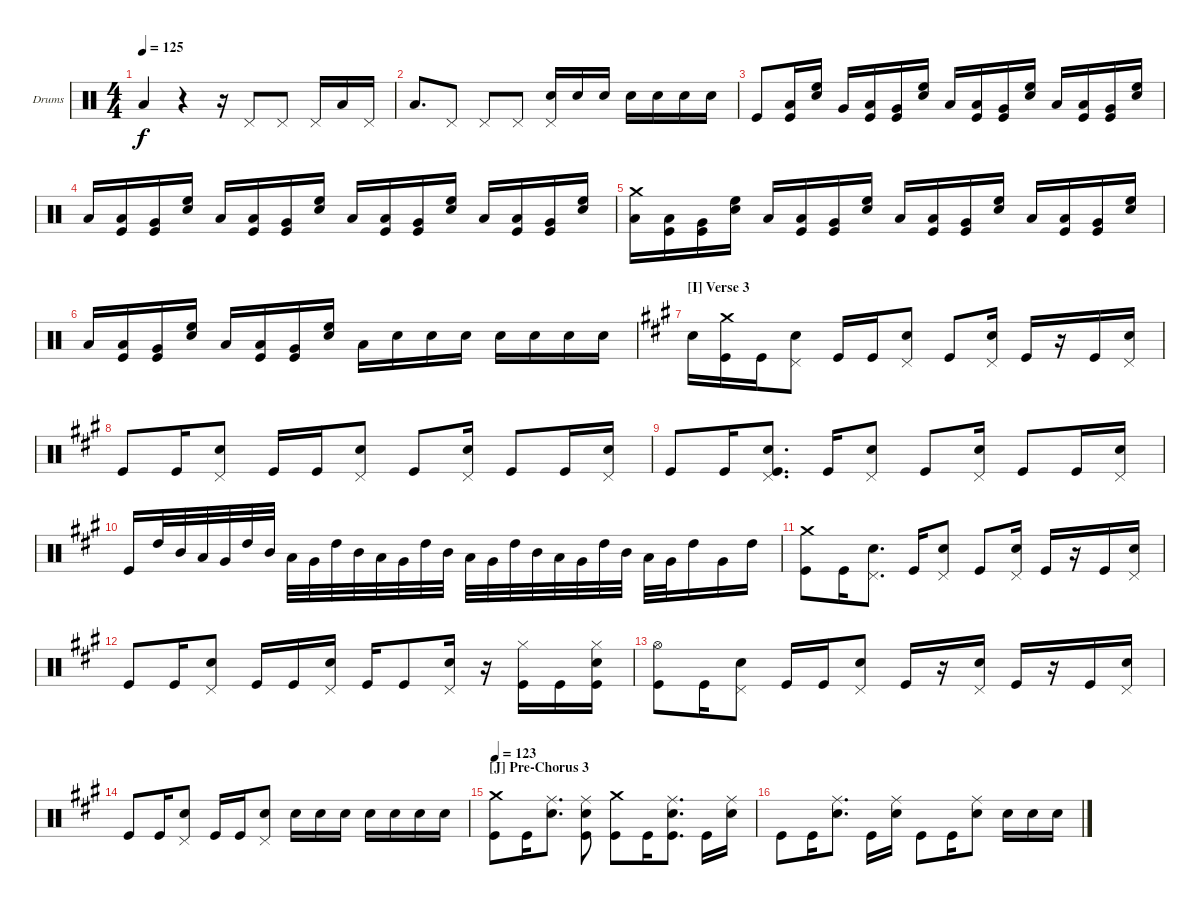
\bracketExtendMode groupsimilarinstruments
\firstSystemTrackNameOrientation horizontal
\otherSystemsTrackNameOrientation horizontal
\track ("Vinny Appice" "Drums") {instrument percussion}
\staff {score}
\articulation defaults
\ts (4 4)
\tempo 125
\clef neutral
\ks aminor "Low Tom (hit)".4{dy f}
r.4 r.16 "Pedal Hi-Hat (hit)".8 "Pedal Hi-Hat (hit)".8 "Pedal Hi-Hat (hit)".16 "Low Tom (hit)".16 "Pedal Hi-Hat (hit)".16 |
"Low Tom (hit)".8{d} "Pedal Hi-Hat (hit)".8 "Pedal Hi-Hat (hit)".8 "Pedal Hi-Hat (hit)".8 ("Pedal Hi-Hat (hit)" "Snare (hit) 2").16 "Snare (hit) 2".16 "Snare (hit) 2".16 "Snare (hit) 2".16 "Snare (hit) 2".16 "Snare (hit) 2".16 "Snare (hit) 2".16 |
"Kick (hit)".8 ("Kick (hit)" "Low Tom (hit)").16 ("High Floor Tom (hit)" "Snare (hit) 2").16 "Very Low Tom (hit)".16 ("Kick (hit)" "Low Tom (hit)").16 ("Kick (hit)" "Very Low Tom (hit)").16 ("High Floor Tom (hit)" "Snare (hit) 2").16 "Low Tom (hit)".16 ("Kick (hit)" "Low Tom (hit)").16 ("Kick (hit)" "Very Low Tom (hit)").16 ("High Floor Tom (hit)" "Snare (hit) 2").16 "Low Tom (hit)".16 ("Kick (hit)" "Low Tom (hit)").16 ("Kick (hit)" "Very Low Tom (hit)").16 ("High Floor Tom (hit)" "Snare (hit) 2").16 |
"Low Tom (hit)".16 ("Kick (hit)" "Low Tom (hit)").16 ("Kick (hit)" "Very Low Tom (hit)").16 ("High Floor Tom (hit)" "Snare (hit) 2").16 "Low Tom (hit)".16 ("Low Tom (hit)" "Kick (hit)").16 ("Kick (hit)" "Very Low Tom (hit)").16 ("High Floor Tom (hit)" "Snare (hit) 2").16 "Low Tom (hit)".16 ("Kick (hit)" "Low Tom (hit)").16 ("Kick (hit)" "Very Low Tom (hit)").16 ("High Floor Tom (hit)" "Snare (hit) 2").16 "Low Tom (hit)".16 ("Low Tom (hit)" "Kick (hit)").16 ("Very Low Tom (hit)" "Kick (hit)").16 ("High Floor Tom (hit)" "Snare (hit) 2").16 |
("Low Tom (hit)" "Crash medium (hit)").16 ("Low Tom (hit)" "Kick (hit)").16 ("Very Low Tom (hit)" "Kick (hit)").16 ("High Floor Tom (hit)" "Snare (hit) 2").16 "Low Tom (hit)".16 ("Low Tom (hit)" "Kick (hit)").16 ("Kick (hit)" "Very Low Tom (hit)").16 ("Snare (hit) 2" "High Floor Tom (hit)").16 "Low Tom (hit)".16 ("Low Tom (hit)" "Kick (hit)").16 ("Kick (hit)" "Very Low Tom (hit)").16 ("Snare (hit) 2" "High Floor Tom (hit)").16 "Low Tom (hit)".16 ("Kick (hit)" "Low Tom (hit)").16 ("Kick (hit)" "Very Low Tom (hit)").16 ("Snare (hit) 2" "High Floor Tom (hit)").16 |
"Low Tom (hit)".16 ("Kick (hit)" "Low Tom (hit)").16 ("Kick (hit)" "Very Low Tom (hit)").16 ("Snare (hit) 2" "High Floor Tom (hit)").16 "Low Tom (hit)".16 ("Low Tom (hit)" "Kick (hit)").16 ("Kick (hit)" "Very Low Tom (hit)").16 ("Snare (hit) 2" "High Floor Tom (hit)").16 "Low Tom (hit)".16 "Snare (hit) 2".16 "Snare (hit) 2".16 "Snare (hit) 2".16 "Snare (hit) 2".16 "Snare (hit) 2".16 "Snare (hit) 2".16 "Snare (hit) 2".16 |
\section ("I" "Verse 3")
\ks f#minor "Snare (hit) 2".16
("Crash medium (hit)" "Kick (hit)").16 "Kick (hit)".16 ("Snare (hit) 2" "Pedal Hi-Hat (hit)").8 "Kick (hit)".16 "Kick (hit)".16 ("Snare (hit) 2" "Pedal Hi-Hat (hit)").8 "Kick (hit)".8 ("Snare (hit) 2" "Pedal Hi-Hat (hit)").16 "Kick (hit)".16 r.16 "Kick (hit)".16 ("Snare (hit) 2" "Pedal Hi-Hat (hit)").16 |
"Kick (hit)".8 "Kick (hit)".16 ("Snare (hit) 2" "Pedal Hi-Hat (hit)").8 "Kick (hit)".16 "Kick (hit)".16 ("Snare (hit) 2" "Pedal Hi-Hat (hit)").8 "Kick (hit)".8 ("Snare (hit) 2" "Pedal Hi-Hat (hit)").16 "Kick (hit)".8 "Kick (hit)".16 ("Snare (hit) 2" "Pedal Hi-Hat (hit)").16 |
"Kick (hit)".8 "Kick (hit)".16 ("Kick (hit)" "Snare (hit) 2" "Pedal Hi-Hat (hit)").8{d} "Kick (hit)".16 ("Snare (hit) 2" "Pedal Hi-Hat (hit)").8 "Kick (hit)".8 ("Snare (hit) 2" "Pedal Hi-Hat (hit)").16 "Kick (hit)".8 "Kick (hit)".16 ("Snare (hit) 2" "Pedal Hi-Hat (hit)").16 |
"Kick (hit)".16 "High Tom (hit)".32 "Mid Tom (hit)".32 "Low Tom (hit)".32 "Very Low Tom (hit)".32 "High Tom (hit)".32 "Mid Tom (hit)".32 "Low Tom (hit)".32 "Very Low Tom (hit)".32 "High Tom (hit)".32 "Mid Tom (hit)".32 "Low Tom (hit)".32 "Very Low Tom (hit)".32 "High Tom (hit)".32 "Mid Tom (hit)".32 "Low Tom (hit)".32 "Very Low Tom (hit)".32 "High Tom (hit)".32 "Mid Tom (hit)".32 "Low Tom (hit)".32 "Very Low Tom (hit)".32 "High Tom (hit)".32 "Mid Tom (hit)".32 "Low Tom (hit)".32 "Very Low Tom (hit)".32 "High Tom (hit)".16 "Very Low Tom (hit)".16 "High Tom (hit)".16 |
("Kick (hit)" "Crash medium (hit)").8 "Kick (hit)".16 ("Snare (hit) 2" "Pedal Hi-Hat (hit)").8{d} "Kick (hit)".16 ("Snare (hit) 2" "Pedal Hi-Hat (hit)").8 "Kick (hit)".8 ("Snare (hit) 2" "Pedal Hi-Hat (hit)").16 "Kick (hit)".16 r.16 "Kick (hit)".16 ("Pedal Hi-Hat (hit)" "Snare (hit) 2").16 |
"Kick (hit)".8 "Kick (hit)".16 ("Snare (hit) 2" "Pedal Hi-Hat (hit)").8 "Kick (hit)".16 "Kick (hit)".16 ("Snare (hit) 2" "Pedal Hi-Hat (hit)").16 "Kick (hit)".16 "Kick (hit)".8 ("Pedal Hi-Hat (hit)" "Snare (hit) 2").16 r.16 ("Kick (hit)" "Hi-Hat (closed)").16 "Kick (hit)".16 ("Snare (hit) 2" "Hi-Hat (closed)" "Kick (hit)").16 |
("Hi-Hat (open)" "Kick (hit)").8 "Kick (hit)".16 ("Pedal Hi-Hat (hit)" "Snare (hit) 2").8 "Kick (hit)".16 "Kick (hit)".16 ("Snare (hit) 2" "Pedal Hi-Hat (hit)").8 "Kick (hit)".16 r.16 ("Pedal Hi-Hat (hit)" "Snare (hit) 2").16 "Kick (hit)".16 r.16 "Kick (hit)".16 ("Snare (hit) 2" "Pedal Hi-Hat (hit)").16 |
"Kick (hit)".8 "Kick (hit)".16 ("Pedal Hi-Hat (hit)" "Snare (hit) 2").8 "Kick (hit)".16 "Kick (hit)".16 ("Pedal Hi-Hat (hit)" "Snare (hit) 2").8 "Snare (hit) 2".16 "Snare (hit) 2".16 "Snare (hit) 2".16 "Snare (hit) 2".16 "Snare (hit) 2".16 "Snare (hit) 2".16 "Snare (hit) 2".16 |
\section ("J" "Pre-Chorus 3")
\tempo 123
("Crash medium (hit)" "Kick (hit)").8 "Kick (hit)".16 ("Ride (middle)" "Snare (hit) 2").8{d} ("Ride (middle)" "Snare (hit) 2" "Kick (hit)").8 ("Kick (hit)" "Crash medium (hit)").8 "Kick (hit)".16 ("Kick (hit)" "Snare (hit) 2" "Ride (middle)").8{d} "Kick (hit)".16 ("Snare (hit) 2" "Ride (middle)").16 |
"Kick (hit)".8 "Kick (hit)".16 ("Ride (middle)" "Snare (hit) 2").8{d} "Kick (hit)".16 ("Snare (hit) 2" "Ride (middle)").16 "Kick (hit)".8 "Kick (hit)".16 ("Snare (hit) 2" "Ride (middle)").8 "Snare (hit) 2".16 "Snare (hit) 2".16 "Snare (hit) 2".16
